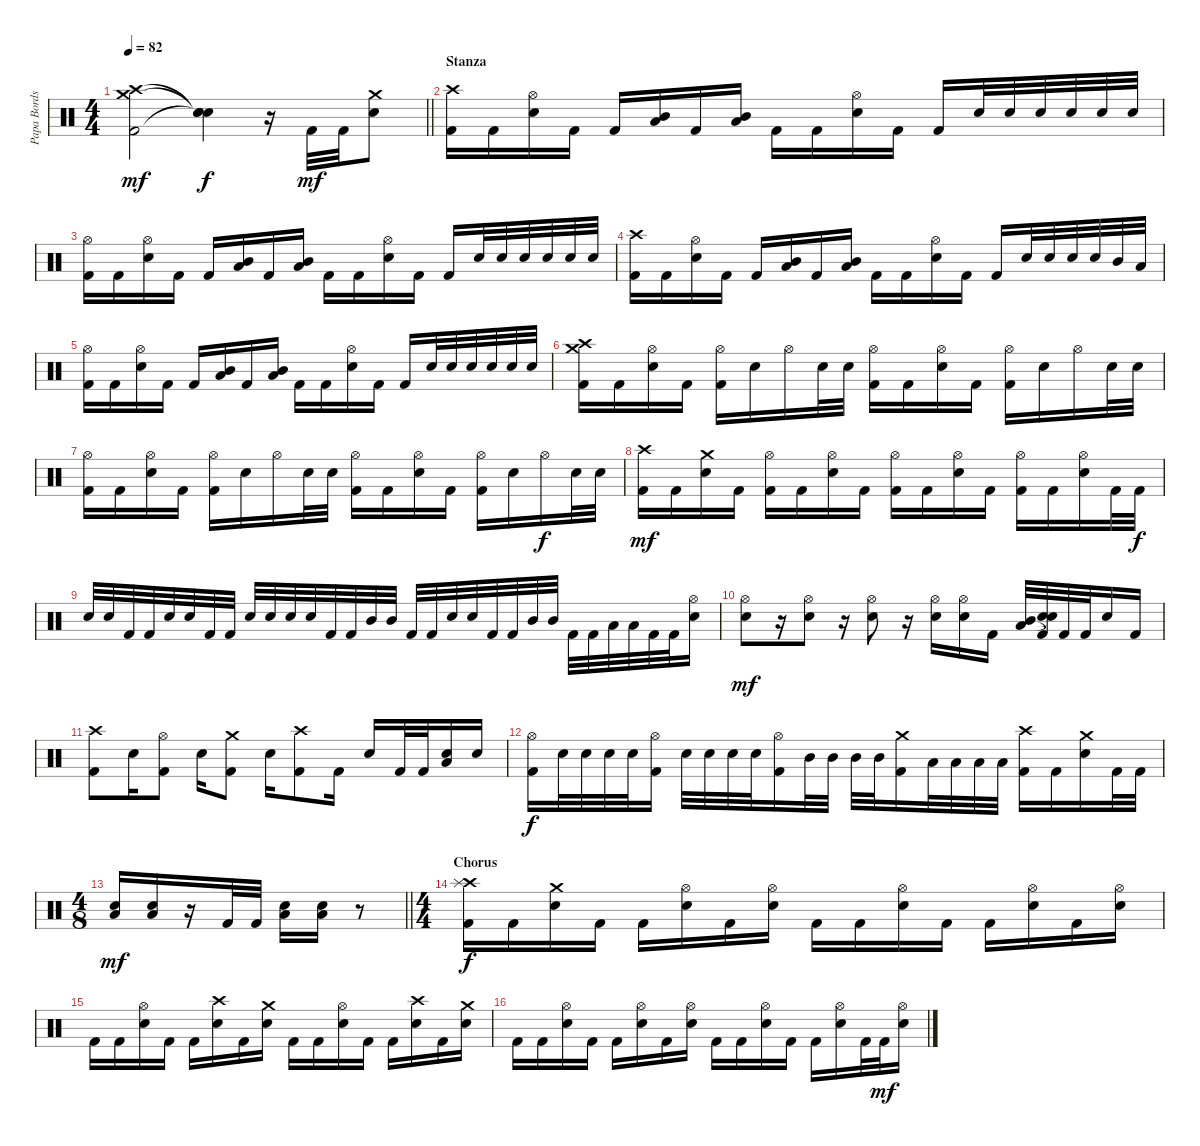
\track ("Papa Bords" "Papa Bords") {instrument percussion}
\staff {score}
\articulation defaults
\ts (4 4)
\tempo 82
\clef neutral
\barLineRight lightlight
\ks c
("Crash high (hit)" "Crash medium (hit)" "Kick (hit) 2").2{dy mf} ("Snare (hit)"{t} "Snare (hit)"{t} "Snare (hit)"{t}).4{dy f} r.16 "Kick (hit) 2".32{dy mf} "Kick (hit) 2".32 ("Crash medium (hit)" "Electric Snare (hit)").8 |
\section ("" "Stanza")
("Crash high (hit)" "Kick (hit) 2").16 "Kick (hit) 2".16 ("Hi-Hat (open)" "Electric Snare (hit)").16 "Kick (hit) 2".16 "Kick (hit) 2".16 ("Low Tom (hit)" "Mid Tom (hit)").16 "Kick (hit) 2".16 ("Low Tom (hit)" "Mid Tom (hit)").16 "Kick (hit) 2".16 "Kick (hit) 2".16 ("Hi-Hat (open)" "Electric Snare (hit)").16 "Kick (hit) 2".16 "Kick (hit) 2".16 "Electric Snare (hit)".32 "Electric Snare (hit)".32 "Electric Snare (hit)".32 "Electric Snare (hit)".32 "Electric Snare (hit)".32 "Electric Snare (hit)".32 |
("Hi-Hat (open)" "Kick (hit) 2").16 "Kick (hit) 2".16 ("Hi-Hat (open)" "Electric Snare (hit)").16 "Kick (hit) 2".16 "Kick (hit) 2".16 ("Low Tom (hit)" "Mid Tom (hit)").16 "Kick (hit) 2".16 ("Low Tom (hit)" "Mid Tom (hit)").16 "Kick (hit) 2".16 "Kick (hit) 2".16 ("Hi-Hat (open)" "Electric Snare (hit)").16 "Kick (hit) 2".16 "Kick (hit) 2".16 "Electric Snare (hit)".32 "Electric Snare (hit)".32 "Electric Snare (hit)".32 "Electric Snare (hit)".32 "Electric Snare (hit)".32 "Electric Snare (hit)".32 |
("Crash high (hit)" "Kick (hit) 2").16 "Kick (hit) 2".16 ("Hi-Hat (open)" "Electric Snare (hit)").16 "Kick (hit) 2".16 "Kick (hit) 2".16 ("Low Tom (hit)" "Mid Tom (hit)").16 "Kick (hit) 2".16 ("Low Floor Tom (hit)" "Mid Tom (hit)").16 "Kick (hit) 2".16 "Kick (hit) 2".16 ("Hi-Hat (open)" "Electric Snare (hit)").16 "Kick (hit) 2".16 "Kick (hit) 2".16 "Electric Snare (hit)".32 "Electric Snare (hit)".32 "Electric Snare (hit)".32 "Electric Snare (hit)".32 "Mid Tom (hit)".32 "Low Floor Tom (hit)".32 |
("Hi-Hat (open)" "Kick (hit) 2").16 "Kick (hit) 2".16 ("Hi-Hat (open)" "Electric Snare (hit)").16 "Kick (hit) 2".16 "Kick (hit) 2".16 ("Low Tom (hit)" "Mid Tom (hit)").16 "Kick (hit) 2".16 ("Low Floor Tom (hit)" "Mid Tom (hit)").16 "Kick (hit) 2".16 "Kick (hit) 2".16 ("Hi-Hat (open)" "Electric Snare (hit)").16 "Kick (hit) 2".16 "Kick (hit) 2".16 "Electric Snare (hit)".32 "Electric Snare (hit)".32 "Electric Snare (hit)".32 "Electric Snare (hit)".32 "Electric Snare (hit)".32 "Electric Snare (hit)".32 |
("Crash high (hit)" "Crash medium (hit)" "Kick (hit) 2").16 "Kick (hit) 2".16 ("Hi-Hat (open)" "Electric Snare (hit)").16 "Kick (hit) 2".16 ("Hi-Hat (open)" "Kick (hit) 2").16 "Electric Snare (hit)".16 "Hi-Hat (open)".16 "Electric Snare (hit)".32 "Electric Snare (hit)".32 ("Hi-Hat (open)" "Kick (hit) 2").16 "Kick (hit) 2".16 ("Hi-Hat (open)" "Electric Snare (hit)").16 "Kick (hit) 2".16 ("Hi-Hat (open)" "Kick (hit) 2").16 "Electric Snare (hit)".16 "Hi-Hat (open)".16 "Electric Snare (hit)".32 "Electric Snare (hit)".32 |
("Hi-Hat (open)" "Kick (hit) 2").16 "Kick (hit) 2".16 ("Hi-Hat (open)" "Electric Snare (hit)").16 "Kick (hit) 2".16 ("Hi-Hat (open)" "Kick (hit) 2").16 "Electric Snare (hit)".16 "Hi-Hat (open)".16 "Electric Snare (hit)".32 "Electric Snare (hit)".32 ("Hi-Hat (open)" "Kick (hit) 2").16 "Kick (hit) 2".16 ("Hi-Hat (open)" "Electric Snare (hit)").16 "Kick (hit) 2".16 ("Hi-Hat (open)" "Kick (hit) 2").16 "Electric Snare (hit)".16 "Hi-Hat (open)".16{dy f} "Electric Snare (hit)".32 "Electric Snare (hit)".32 |
("Crash high (hit)" "Kick (hit) 2").16{dy mf} "Kick (hit) 2".16 ("Crash medium (hit)" "Electric Snare (hit)").16 "Kick (hit) 2".16 ("Hi-Hat (open)" "Kick (hit) 2").16 "Kick (hit) 2".16 ("Hi-Hat (open)" "Electric Snare (hit)").16 "Kick (hit) 2".16 ("Hi-Hat (open)" "Kick (hit) 2").16 "Kick (hit) 2".16 ("Hi-Hat (open)" "Electric Snare (hit)").16 "Kick (hit) 2".16 ("Hi-Hat (open)" "Kick (hit) 2").16 "Kick (hit) 2".16 ("Hi-Hat (open)" "Electric Snare (hit)").16 "Kick (hit) 2".32 "Kick (hit) 2".32{dy f} |
"Electric Snare (hit)".32 "Electric Snare (hit)".32 "Kick (hit) 2".32 "Kick (hit) 2".32 "Electric Snare (hit)".32 "Electric Snare (hit)".32 "Kick (hit) 2".32 "Kick (hit) 2".32 "Electric Snare (hit)".32 "Electric Snare (hit)".32 "Electric Snare (hit)".32 "Electric Snare (hit)".32 "Kick (hit) 2".32 "Kick (hit) 2".32 "Mid Tom (hit)".32 "Mid Tom (hit)".32 "Kick (hit) 2".32 "Kick (hit) 2".32 "Electric Snare (hit)".32 "Electric Snare (hit)".32 "Kick (hit) 2".32 "Kick (hit) 2".32 "Mid Tom (hit)".32 "Mid Tom (hit)".32 "Kick (hit) 2".32 "Kick (hit) 2".32 "Low Floor Tom (hit)".32 "Low Floor Tom (hit)".32 "Kick (hit) 2".32 "Kick (hit) 2".32 ("Hi-Hat (open)" "Electric Snare (hit)").16 |
("Hi-Hat (open)" "Electric Snare (hit)").8{dy mf} r.16 ("Hi-Hat (open)" "Electric Snare (hit)").8 r.16 ("Hi-Hat (open)" "Electric Snare (hit)").8 r.16 ("Hi-Hat (open)" "Electric Snare (hit)").16 ("Hi-Hat (open)" "Electric Snare (hit)").16 "Kick (hit) 2".16 ("Low Floor Tom (hit)" "Mid Tom (hit)").32 ("Snare (hit)"{t} "Snare (hit)"{t} "Kick (hit) 2").32 "Kick (hit) 2".32 "Kick (hit) 2".32 "Electric Snare (hit)".16 "Kick (hit) 2".16 |
("Crash high (hit)" "Kick (hit) 2").8 "Electric Snare (hit)".16 ("Hi-Hat (open)" "Kick (hit) 2").8 "Electric Snare (hit)".16 ("Crash medium (hit)" "Kick (hit) 2").8 "Electric Snare (hit)".16 ("Crash high (hit)" "Kick (hit) 2").8 "Kick (hit) 2".16 "Electric Snare (hit)".16 "Kick (hit) 2".32 "Kick (hit) 2".32 ("Low Floor Tom (hit)" "Electric Snare (hit)").16 "Electric Snare (hit)".16 |
("Hi-Hat (open)" "Kick (hit) 2").16{dy f} "Electric Snare (hit)".32 "Electric Snare (hit)".32 "Electric Snare (hit)".32 "Electric Snare (hit)".32 ("Hi-Hat (open)" "Kick (hit) 2").16 "Electric Snare (hit)".32 "Electric Snare (hit)".32 "Electric Snare (hit)".32 "Electric Snare (hit)".32 ("Hi-Hat (open)" "Kick (hit) 2").16 "Mid Tom (hit)".32 "Mid Tom (hit)".32 "Mid Tom (hit)".32 "Mid Tom (hit)".32 ("Crash medium (hit)" "Kick (hit) 2").16 "Low Tom (hit)".32 "Low Tom (hit)".32 "Low Tom (hit)".32 "Low Tom (hit)".32 ("Crash high (hit)" "Kick (hit) 2").16 "Kick (hit) 2".16 ("Crash medium (hit)" "Electric Snare (hit)").16 "Kick (hit) 2".32 "Kick (hit) 2".32 |
\ts (4 8)
\barLineRight lightlight
("Low Floor Tom (hit)" "Electric Snare (hit)").16{dy mf} ("Low Floor Tom (hit)" "Electric Snare (hit)").16 r.16 "Kick (hit) 2".32 "Kick (hit) 2".32 ("Low Floor Tom (hit)" "Electric Snare (hit)").16 ("Low Floor Tom (hit)" "Electric Snare (hit)").16 r.8 |
\ts (4 4)
\section ("" "Chorus")
("Crash high (hit)" "Splash (hit)" "Kick (hit) 2").16{dy f} "Kick (hit) 2".16 ("Crash medium (hit)" "Electric Snare (hit)").16 "Kick (hit) 2".16 "Kick (hit) 2".16 ("Hi-Hat (open)" "Electric Snare (hit)").16 "Kick (hit) 2".16 ("Hi-Hat (open)" "Electric Snare (hit)").16 "Kick (hit) 2".16 "Kick (hit) 2".16 ("Hi-Hat (open)" "Electric Snare (hit)").16 "Kick (hit) 2".16 "Kick (hit) 2".16 ("Hi-Hat (open)" "Electric Snare (hit)").16 "Kick (hit) 2".16 ("Hi-Hat (open)" "Electric Snare (hit)").16 |
"Kick (hit) 2".16 "Kick (hit) 2".16 ("Hi-Hat (open)" "Electric Snare (hit)").16 "Kick (hit) 2".16 "Kick (hit) 2".16 ("Crash high (hit)" "Electric Snare (hit)").16 "Kick (hit) 2".16 ("Crash medium (hit)" "Electric Snare (hit)").16 "Kick (hit) 2".16 "Kick (hit) 2".16 ("Hi-Hat (open)" "Electric Snare (hit)").16 "Kick (hit) 2".16 "Kick (hit) 2".16 ("Crash high (hit)" "Electric Snare (hit)").16 "Kick (hit) 2".16 ("Crash medium (hit)" "Electric Snare (hit)").16 |
"Kick (hit) 2".16 "Kick (hit) 2".16 ("Hi-Hat (open)" "Electric Snare (hit)").16 "Kick (hit) 2".16 "Kick (hit) 2".16 ("Hi-Hat (open)" "Electric Snare (hit)").16 "Kick (hit) 2".16 ("Hi-Hat (open)" "Electric Snare (hit)").16 "Kick (hit) 2".16 "Kick (hit) 2".16 ("Hi-Hat (open)" "Electric Snare (hit)").16 "Kick (hit) 2".16 "Kick (hit) 2".16 ("Hi-Hat (open)" "Electric Snare (hit)").16 "Kick (hit) 2".32 "Kick (hit) 2".32{dy mf} ("Hi-Hat (open)" "Electric Snare (hit)").16
